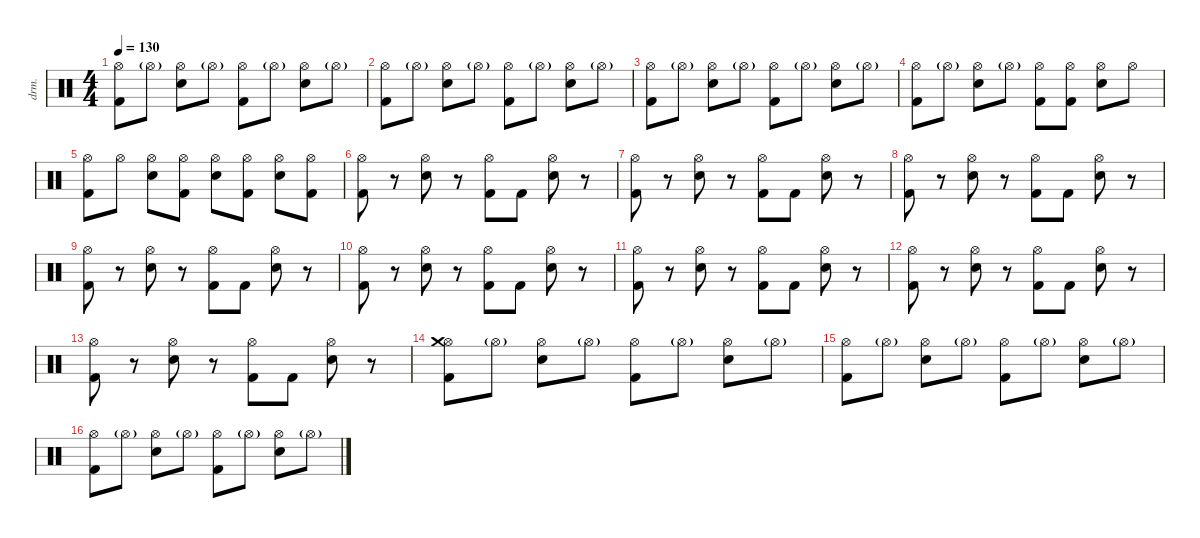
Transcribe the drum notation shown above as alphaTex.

\defaultSystemsLayout 4
\hideDynamics
\bracketExtendMode nobrackets
\otherSystemsTrackNameOrientation horizontal
\track ("Percussion" "drm.") {instrument percussion}
\staff {score}
\articulation defaults
\ts (4 4)
\tempo 130
\clef neutral
\ks c
("Hi-Hat (open)" "Kick (hit) 2").8{dy f} "Hi-Hat (open)"{g}.8 ("Hi-Hat (open)" "Snare (hit) 2").8 "Hi-Hat (open)"{g}.8 ("Hi-Hat (open)" "Kick (hit) 2").8 "Hi-Hat (open)"{g}.8 ("Hi-Hat (open)" "Snare (hit) 2").8 "Hi-Hat (open)"{g}.8 |
("Hi-Hat (open)" "Kick (hit) 2").8 "Hi-Hat (open)"{g}.8 ("Hi-Hat (open)" "Snare (hit) 2").8 "Hi-Hat (open)"{g}.8 ("Hi-Hat (open)" "Kick (hit) 2").8 "Hi-Hat (open)"{g}.8 ("Hi-Hat (open)" "Snare (hit) 2").8 "Hi-Hat (open)"{g}.8 |
("Hi-Hat (open)" "Kick (hit) 2").8 "Hi-Hat (open)"{g}.8 ("Hi-Hat (open)" "Snare (hit) 2").8 "Hi-Hat (open)"{g}.8 ("Hi-Hat (open)" "Kick (hit) 2").8 "Hi-Hat (open)"{g}.8 ("Hi-Hat (open)" "Snare (hit) 2").8 "Hi-Hat (open)"{g}.8 |
("Hi-Hat (open)" "Kick (hit) 2").8 "Hi-Hat (open)"{g}.8 ("Hi-Hat (open)" "Snare (hit) 2").8 "Hi-Hat (open)"{g}.8 ("Hi-Hat (open)" "Kick (hit) 2").8 ("Hi-Hat (open)" "Kick (hit) 2").8 ("Hi-Hat (open)" "Snare (hit) 2").8 "Hi-Hat (open)".8 |
("Hi-Hat (open)" "Kick (hit) 2").8 "Hi-Hat (open)".8 ("Hi-Hat (open)" "Snare (hit) 2").8 ("Hi-Hat (open)" "Kick (hit) 2").8 ("Hi-Hat (open)" "Snare (hit) 2").8 ("Hi-Hat (open)" "Kick (hit) 2").8 ("Hi-Hat (open)" "Snare (hit) 2").8 ("Hi-Hat (open)" "Kick (hit) 2").8 |
("Hi-Hat (open)" "Kick (hit) 2").8 r.8 ("Hi-Hat (open)" "Snare (hit) 2").8 r.8 ("Hi-Hat (open)" "Kick (hit) 2").8 "Kick (hit) 2".8 ("Hi-Hat (open)" "Snare (hit) 2").8 r.8 |
("Hi-Hat (open)" "Kick (hit) 2").8 r.8 ("Hi-Hat (open)" "Snare (hit) 2").8 r.8 ("Hi-Hat (open)" "Kick (hit) 2").8 "Kick (hit) 2".8 ("Hi-Hat (open)" "Snare (hit) 2").8 r.8 |
("Hi-Hat (open)" "Kick (hit) 2").8 r.8 ("Hi-Hat (open)" "Snare (hit) 2").8 r.8 ("Hi-Hat (open)" "Kick (hit) 2").8 "Kick (hit) 2".8 ("Hi-Hat (open)" "Snare (hit) 2").8 r.8 |
("Hi-Hat (open)" "Kick (hit) 2").8 r.8 ("Hi-Hat (open)" "Snare (hit) 2").8 r.8 ("Hi-Hat (open)" "Kick (hit) 2").8 "Kick (hit) 2".8 ("Hi-Hat (open)" "Snare (hit) 2").8 r.8 |
("Hi-Hat (open)" "Kick (hit) 2").8 r.8 ("Hi-Hat (open)" "Snare (hit) 2").8 r.8 ("Hi-Hat (open)" "Kick (hit) 2").8 "Kick (hit) 2".8 ("Hi-Hat (open)" "Snare (hit) 2").8 r.8 |
("Hi-Hat (open)" "Kick (hit) 2").8 r.8 ("Hi-Hat (open)" "Snare (hit) 2").8 r.8 ("Hi-Hat (open)" "Kick (hit) 2").8 "Kick (hit) 2".8 ("Hi-Hat (open)" "Snare (hit) 2").8 r.8 |
("Hi-Hat (open)" "Kick (hit) 2").8 r.8 ("Hi-Hat (open)" "Snare (hit) 2").8 r.8 ("Hi-Hat (open)" "Kick (hit) 2").8 "Kick (hit) 2".8 ("Hi-Hat (open)" "Snare (hit) 2").8 r.8 |
("Hi-Hat (open)" "Kick (hit) 2").8 r.8 ("Hi-Hat (open)" "Snare (hit) 2").8 r.8 ("Hi-Hat (open)" "Kick (hit) 2").8 "Kick (hit) 2".8 ("Hi-Hat (open)" "Snare (hit) 2").8 r.8 |
("Hi-Hat (open)" "Crash medium (hit)" "Kick (hit) 2").8 "Hi-Hat (open)"{g}.8 ("Hi-Hat (open)" "Snare (hit) 2").8 "Hi-Hat (open)"{g}.8 ("Hi-Hat (open)" "Kick (hit) 2").8 "Hi-Hat (open)"{g}.8 ("Hi-Hat (open)" "Snare (hit) 2").8 "Hi-Hat (open)"{g}.8 |
("Hi-Hat (open)" "Kick (hit) 2").8 "Hi-Hat (open)"{g}.8 ("Hi-Hat (open)" "Snare (hit) 2").8 "Hi-Hat (open)"{g}.8 ("Hi-Hat (open)" "Kick (hit) 2").8 "Hi-Hat (open)"{g}.8 ("Hi-Hat (open)" "Snare (hit) 2").8 "Hi-Hat (open)"{g}.8 |
("Hi-Hat (open)" "Kick (hit) 2").8 "Hi-Hat (open)"{g}.8 ("Hi-Hat (open)" "Snare (hit) 2").8 "Hi-Hat (open)"{g}.8 ("Hi-Hat (open)" "Kick (hit) 2").8 "Hi-Hat (open)"{g}.8 ("Hi-Hat (open)" "Snare (hit) 2").8 "Hi-Hat (open)"{g}.8
